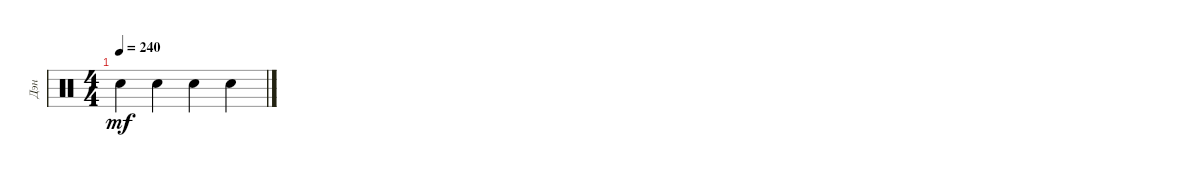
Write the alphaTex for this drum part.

\track ("Дэн" "Дэн") {instrument percussion}
\staff {score}
\articulation defaults
\ts (4 4)
\tempo 240
\clef neutral
\ks c "Snare (hit) 2".4{dy mf} "Snare (hit) 2".4 "Snare (hit) 2".4 "Snare (hit) 2".4
